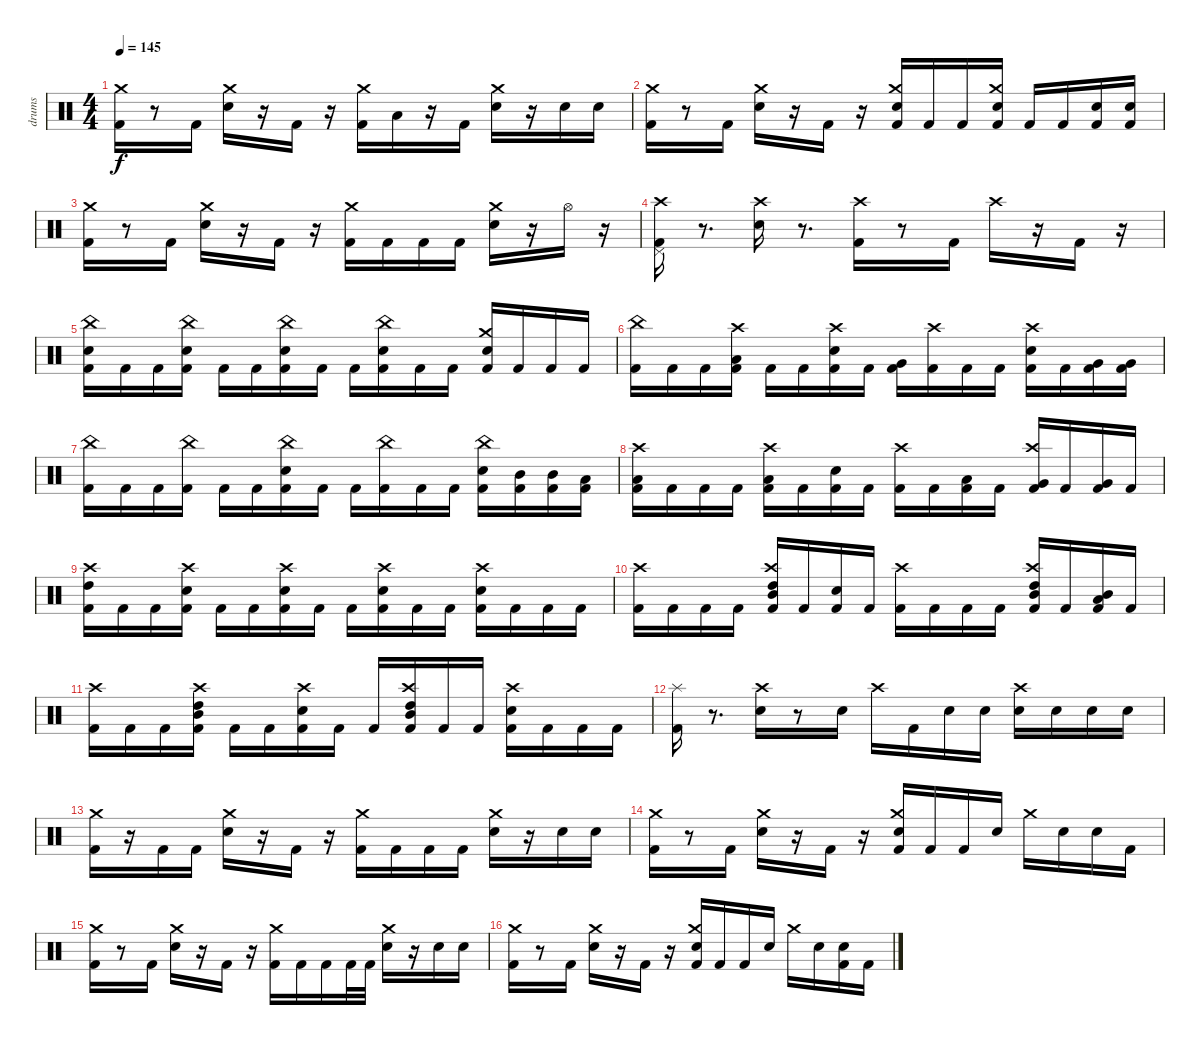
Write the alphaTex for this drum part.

\track ("drums" "drums") {instrument percussion}
\staff {score}
\articulation defaults
\ts (4 4)
\tempo 145
\clef neutral
\ks c
("Kick (hit) 2" "Crash medium (hit)").16{dy f} r.8 "Kick (hit) 2".16 ("Snare (hit) 2" "Crash medium (hit)").16 r.16 "Kick (hit) 2".16 r.16 ("Kick (hit) 2" "Crash medium (hit)").16 "Low Tom (hit)".16 r.16 "Kick (hit) 2".16 ("Snare (hit) 2" "Crash medium (hit)").16 r.16 "Snare (hit) 2".16 "Snare (hit) 2".16 |
("Kick (hit) 2" "Crash medium (hit)").16 r.8 "Kick (hit) 2".16 ("Snare (hit) 2" "Crash medium (hit)").16 r.16 "Kick (hit) 2".16 r.16 ("Kick (hit) 2" "Snare (hit) 2" "Crash medium (hit)").16 "Kick (hit) 2".16 "Kick (hit) 2".16 ("Kick (hit) 2" "Snare (hit) 2" "Crash medium (hit)").16 "Kick (hit) 2".16 "Kick (hit) 2".16 ("Kick (hit) 2" "Snare (hit) 2").16 ("Kick (hit) 2" "Snare (hit) 2").16 |
("Kick (hit) 2" "Crash medium (hit)").16 r.8 "Kick (hit) 2".16 ("Snare (hit) 2" "Crash medium (hit)").16 r.16 "Kick (hit) 2".16 r.16 ("Kick (hit) 2" "Crash medium (hit)").16 "Kick (hit) 2".16 "Kick (hit) 2".16 "Kick (hit) 2".16 ("Snare (hit) 2" "Crash medium (hit)").16 r.16 "Hi-Hat (open)".16 r.16 |
("Kick (hit) 2" "Pedal Hi-Hat (hit)" "Crash high (hit)").16 r.8{d} ("Snare (hit) 2" "Crash high (hit)").16 r.8{d} ("Kick (hit) 2" "Crash high (hit)").16 r.8 "Kick (hit) 2".16 "Crash high (hit)".16 r.16 "Kick (hit) 2".16 r.16 |
("Kick (hit) 2" "Snare (hit) 2" "China (hit)").16 "Kick (hit) 2".16 "Kick (hit) 2".16 ("Kick (hit) 2" "Snare (hit) 2" "China (hit)").16 "Kick (hit) 2".16 "Kick (hit) 2".16 ("Kick (hit) 2" "Snare (hit) 2" "China (hit)").16 "Kick (hit) 2".16 "Kick (hit) 2".16 ("Kick (hit) 2" "Snare (hit) 2" "China (hit)").16 "Kick (hit) 2".16 "Kick (hit) 2".16 ("Kick (hit) 2" "Snare (hit) 2" "Crash medium (hit)").16 "Kick (hit) 2".16 "Kick (hit) 2".16 "Kick (hit) 2".16 |
("Kick (hit) 2" "China (hit)").16 "Kick (hit) 2".16 "Kick (hit) 2".16 ("Kick (hit) 2" "Low Tom (hit)" "Crash high (hit)").16 "Kick (hit) 2".16 "Kick (hit) 2".16 ("Kick (hit) 2" "Snare (hit) 2" "Crash high (hit)").16 "Kick (hit) 2".16 ("Kick (hit) 2" "Very Low Tom (hit)").16 ("Kick (hit) 2" "Crash high (hit)").16 "Kick (hit) 2".16 "Kick (hit) 2".16 ("Kick (hit) 2" "Snare (hit) 2" "Crash high (hit)").16 "Kick (hit) 2".16 ("Kick (hit) 2" "Very Low Tom (hit)").16 ("Kick (hit) 2" "Very Low Tom (hit)").16 |
("Kick (hit) 2" "China (hit)").16 "Kick (hit) 2".16 "Kick (hit) 2".16 ("Kick (hit) 2" "China (hit)").16 "Kick (hit) 2".16 "Kick (hit) 2".16 ("Kick (hit) 2" "Snare (hit) 2" "China (hit)").16 "Kick (hit) 2".16 "Kick (hit) 2".16 ("Kick (hit) 2" "China (hit)").16 "Kick (hit) 2".16 "Kick (hit) 2".16 ("Kick (hit) 2" "Snare (hit) 2" "China (hit)").16 ("Kick (hit) 2" "Mid Tom (hit)").16 ("Kick (hit) 2" "Mid Tom (hit)").16 ("Kick (hit) 2" "Low Tom (hit)").16 |
("Kick (hit) 2" "Low Tom (hit)" "Crash high (hit)").16 "Kick (hit) 2".16 "Kick (hit) 2".16 "Kick (hit) 2".16 ("Kick (hit) 2" "Low Tom (hit)" "Crash high (hit)").16 "Kick (hit) 2".16 ("Kick (hit) 2" "Snare (hit) 2").16 "Kick (hit) 2".16 ("Kick (hit) 2" "Crash high (hit)").16 "Kick (hit) 2".16 ("Kick (hit) 2" "Low Tom (hit)").16 "Kick (hit) 2".16 ("Kick (hit) 2" "Very Low Tom (hit)" "Crash high (hit)").16 "Kick (hit) 2".16 ("Kick (hit) 2" "Very Low Tom (hit)").16 "Kick (hit) 2".16 |
("Kick (hit) 2" "High Tom (hit)" "Crash high (hit)").16 "Kick (hit) 2".16 "Kick (hit) 2".16 ("Kick (hit) 2" "Snare (hit) 2" "Crash high (hit)").16 "Kick (hit) 2".16 "Kick (hit) 2".16 ("Kick (hit) 2" "Snare (hit) 2" "Crash high (hit)").16 "Kick (hit) 2".16 "Kick (hit) 2".16 ("Kick (hit) 2" "Snare (hit) 2" "Crash high (hit)").16 "Kick (hit) 2".16 "Kick (hit) 2".16 ("Kick (hit) 2" "Snare (hit) 2" "Crash high (hit)").16 "Kick (hit) 2".16 "Kick (hit) 2".16 "Kick (hit) 2".16 |
("Kick (hit) 2" "Crash high (hit)").16 "Kick (hit) 2".16 "Kick (hit) 2".16 "Kick (hit) 2".16 ("Kick (hit) 2" "Mid Tom (hit)" "High Tom (hit)" "Crash high (hit)").16 "Kick (hit) 2".16 ("Kick (hit) 2" "Snare (hit) 2").16 "Kick (hit) 2".16 ("Kick (hit) 2" "Crash high (hit)").16 "Kick (hit) 2".16 "Kick (hit) 2".16 "Kick (hit) 2".16 ("Kick (hit) 2" "Mid Tom (hit)" "High Tom (hit)" "Crash high (hit)").16 "Kick (hit) 2".16 ("Kick (hit) 2" "Low Tom (hit)" "Mid Tom (hit)").16 "Kick (hit) 2".16 |
("Kick (hit) 2" "Crash high (hit)").16 "Kick (hit) 2".16 "Kick (hit) 2".16 ("Kick (hit) 2" "Mid Tom (hit)" "High Tom (hit)" "Crash high (hit)").16 "Kick (hit) 2".16 "Kick (hit) 2".16 ("Kick (hit) 2" "Snare (hit) 2" "Crash high (hit)").16 "Kick (hit) 2".16 "Kick (hit) 2".16 ("Kick (hit) 2" "Mid Tom (hit)" "High Tom (hit)" "Crash high (hit)").16 "Kick (hit) 2".16 "Kick (hit) 2".16 ("Kick (hit) 2" "Snare (hit) 2" "Crash high (hit)").16 "Kick (hit) 2".16 "Kick (hit) 2".16 "Kick (hit) 2".16 |
("Kick (hit) 2" "Splash (hit)").16 r.8{d} ("Snare (hit) 2" "Crash high (hit)").16 r.8 "Snare (hit) 2".16 "Crash high (hit)".16 "Kick (hit) 2".16 "Snare (hit) 2".16 "Snare (hit) 2".16 ("Snare (hit) 2" "Crash high (hit)").16 "Snare (hit) 2".16 "Snare (hit) 2".16 "Snare (hit) 2".16 |
("Kick (hit) 2" "Crash medium (hit)").16 r.16 "Kick (hit) 2".16 "Kick (hit) 2".16 ("Snare (hit) 2" "Crash medium (hit)").16 r.16 "Kick (hit) 2".16 r.16 ("Kick (hit) 2" "Crash medium (hit)").16 "Kick (hit) 2".16 "Kick (hit) 2".16 "Kick (hit) 2".16 ("Snare (hit) 2" "Crash medium (hit)").16 r.16 "Snare (hit) 2".16 "Snare (hit) 2".16 |
("Kick (hit) 2" "Crash medium (hit)").16 r.8 "Kick (hit) 2".16 ("Snare (hit) 2" "Crash medium (hit)").16 r.16 "Kick (hit) 2".16 r.16 ("Kick (hit) 2" "Snare (hit) 2" "Crash medium (hit)").16 "Kick (hit) 2".16 "Kick (hit) 2".16 "Snare (hit) 2".16 "Crash medium (hit)".16 "Snare (hit) 2".16 "Snare (hit) 2".16 "Kick (hit) 2".16 |
("Kick (hit) 2" "Crash medium (hit)").16 r.8 "Kick (hit) 2".16 ("Snare (hit) 2" "Crash medium (hit)").16 r.16 "Kick (hit) 2".16 r.16 ("Kick (hit) 2" "Crash medium (hit)").16 "Kick (hit) 2".16 "Kick (hit) 2".16 "Kick (hit) 2".32 "Kick (hit) 2".32 ("Snare (hit) 2" "Crash medium (hit)").16 r.16 "Snare (hit) 2".16 "Snare (hit) 2".16 |
("Kick (hit) 2" "Crash medium (hit)").16 r.8 "Kick (hit) 2".16 ("Snare (hit) 2" "Crash medium (hit)").16 r.16 "Kick (hit) 2".16 r.16 ("Kick (hit) 2" "Snare (hit) 2" "Crash medium (hit)").16 "Kick (hit) 2".16 "Kick (hit) 2".16 "Snare (hit) 2".16 "Crash medium (hit)".16 "Snare (hit) 2".16 ("Kick (hit) 2" "Snare (hit) 2").16 "Kick (hit) 2".16
